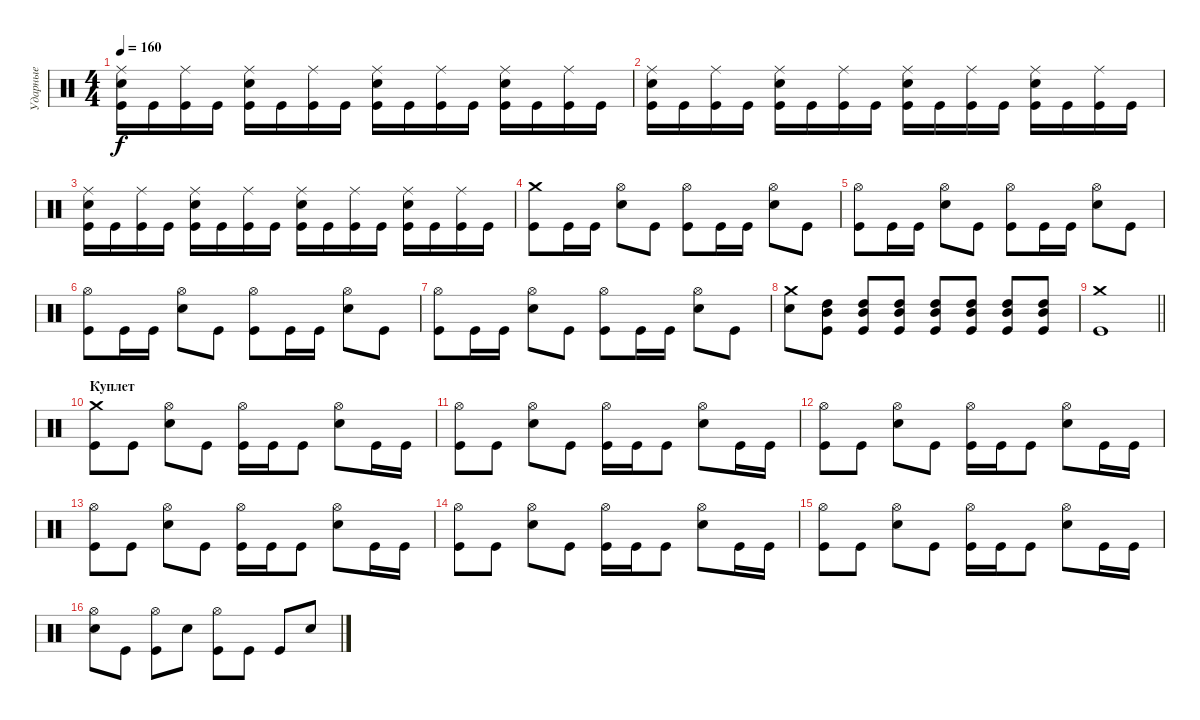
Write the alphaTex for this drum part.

\track ("Ударные" "Ударные") {instrument percussion}
\staff {score}
\articulation defaults
\ts (4 4)
\tempo 160
\clef neutral
\ks c
("Kick (hit)" "Snare (hit) 2" "Ride (middle)").16{dy f} "Kick (hit)".16 ("Kick (hit)" "Ride (middle)").16 "Kick (hit)".16 ("Kick (hit)" "Snare (hit) 2" "Ride (middle)").16 "Kick (hit)".16 ("Kick (hit)" "Ride (middle)").16 "Kick (hit)".16 ("Kick (hit)" "Snare (hit) 2" "Ride (middle)").16 "Kick (hit)".16 ("Kick (hit)" "Ride (middle)").16 "Kick (hit)".16 ("Kick (hit)" "Snare (hit) 2" "Ride (middle)").16 "Kick (hit)".16 ("Kick (hit)" "Ride (middle)").16 "Kick (hit)".16 |
("Kick (hit)" "Snare (hit) 2" "Ride (middle)").16 "Kick (hit)".16 ("Kick (hit)" "Ride (middle)").16 "Kick (hit)".16 ("Kick (hit)" "Snare (hit) 2" "Ride (middle)").16 "Kick (hit)".16 ("Kick (hit)" "Ride (middle)").16 "Kick (hit)".16 ("Kick (hit)" "Snare (hit) 2" "Ride (middle)").16 "Kick (hit)".16 ("Kick (hit)" "Ride (middle)").16 "Kick (hit)".16 ("Kick (hit)" "Snare (hit) 2" "Ride (middle)").16 "Kick (hit)".16 ("Kick (hit)" "Ride (middle)").16 "Kick (hit)".16 |
("Kick (hit)" "Snare (hit) 2" "Ride (middle)").16 "Kick (hit)".16 ("Kick (hit)" "Ride (middle)").16 "Kick (hit)".16 ("Kick (hit)" "Snare (hit) 2" "Ride (middle)").16 "Kick (hit)".16 ("Kick (hit)" "Ride (middle)").16 "Kick (hit)".16 ("Kick (hit)" "Snare (hit) 2" "Ride (middle)").16 "Kick (hit)".16 ("Kick (hit)" "Ride (middle)").16 "Kick (hit)".16 ("Kick (hit)" "Snare (hit) 2" "Ride (middle)").16 "Kick (hit)".16 ("Kick (hit)" "Ride (middle)").16 "Kick (hit)".16 |
("Kick (hit)" "Crash medium (hit)").8 "Kick (hit)".16 "Kick (hit)".16 ("Snare (hit) 2" "Hi-Hat (open)").8 "Kick (hit)".8 ("Kick (hit)" "Hi-Hat (open)").8 "Kick (hit)".16 "Kick (hit)".16 ("Snare (hit) 2" "Hi-Hat (open)").8 "Kick (hit)".8 |
("Kick (hit)" "Hi-Hat (open)").8 "Kick (hit)".16 "Kick (hit)".16 ("Snare (hit) 2" "Hi-Hat (open)").8 "Kick (hit)".8 ("Kick (hit)" "Hi-Hat (open)").8 "Kick (hit)".16 "Kick (hit)".16 ("Snare (hit) 2" "Hi-Hat (open)").8 "Kick (hit)".8 |
("Kick (hit)" "Hi-Hat (open)").8 "Kick (hit)".16 "Kick (hit)".16 ("Snare (hit) 2" "Hi-Hat (open)").8 "Kick (hit)".8 ("Kick (hit)" "Hi-Hat (open)").8 "Kick (hit)".16 "Kick (hit)".16 ("Snare (hit) 2" "Hi-Hat (open)").8 "Kick (hit)".8 |
("Kick (hit)" "Hi-Hat (open)").8 "Kick (hit)".16 "Kick (hit)".16 ("Snare (hit) 2" "Hi-Hat (open)").8 "Kick (hit)".8 ("Kick (hit)" "Hi-Hat (open)").8 "Kick (hit)".16 "Kick (hit)".16 ("Snare (hit) 2" "Hi-Hat (open)").8 "Kick (hit)".8 |
("Snare (hit) 2" "Crash medium (hit)").8 ("Kick (hit)" "Mid Tom (hit)" "High Tom (hit)").8{bd 60} ("Kick (hit)" "Mid Tom (hit)" "High Tom (hit)").8{bd 60} ("Kick (hit)" "Mid Tom (hit)" "High Tom (hit)").8{bd 60} ("Kick (hit)" "Mid Tom (hit)" "High Tom (hit)").8{bd 60} ("Kick (hit)" "Mid Tom (hit)" "High Tom (hit)").8{bd 60} ("Kick (hit)" "Mid Tom (hit)" "High Tom (hit)").8{bd 60} ("Kick (hit)" "Mid Tom (hit)" "High Tom (hit)").8{bd 60} |
\barLineRight lightlight
("Kick (hit)" "Crash medium (hit)").1 |
\section ("" "Куплет")
("Kick (hit)" "Crash medium (hit)").8 "Kick (hit)".8 ("Snare (hit) 2" "Hi-Hat (open)").8 "Kick (hit)".8 ("Kick (hit)" "Hi-Hat (open)").16 "Kick (hit)".16 "Kick (hit)".8 ("Snare (hit) 2" "Hi-Hat (open)").8 "Kick (hit)".16 "Kick (hit)".16 |
("Kick (hit)" "Hi-Hat (open)").8 "Kick (hit)".8 ("Snare (hit) 2" "Hi-Hat (open)").8 "Kick (hit)".8 ("Kick (hit)" "Hi-Hat (open)").16 "Kick (hit)".16 "Kick (hit)".8 ("Snare (hit) 2" "Hi-Hat (open)").8 "Kick (hit)".16 "Kick (hit)".16 |
("Kick (hit)" "Hi-Hat (open)").8 "Kick (hit)".8 ("Snare (hit) 2" "Hi-Hat (open)").8 "Kick (hit)".8 ("Kick (hit)" "Hi-Hat (open)").16 "Kick (hit)".16 "Kick (hit)".8 ("Snare (hit) 2" "Hi-Hat (open)").8 "Kick (hit)".16 "Kick (hit)".16 |
("Kick (hit)" "Hi-Hat (open)").8 "Kick (hit)".8 ("Snare (hit) 2" "Hi-Hat (open)").8 "Kick (hit)".8 ("Kick (hit)" "Hi-Hat (open)").16 "Kick (hit)".16 "Kick (hit)".8 ("Snare (hit) 2" "Hi-Hat (open)").8 "Kick (hit)".16 "Kick (hit)".16 |
("Kick (hit)" "Hi-Hat (open)").8 "Kick (hit)".8 ("Snare (hit) 2" "Hi-Hat (open)").8 "Kick (hit)".8 ("Kick (hit)" "Hi-Hat (open)").16 "Kick (hit)".16 "Kick (hit)".8 ("Snare (hit) 2" "Hi-Hat (open)").8 "Kick (hit)".16 "Kick (hit)".16 |
("Kick (hit)" "Hi-Hat (open)").8 "Kick (hit)".8 ("Snare (hit) 2" "Hi-Hat (open)").8 "Kick (hit)".8 ("Kick (hit)" "Hi-Hat (open)").16 "Kick (hit)".16 "Kick (hit)".8 ("Snare (hit) 2" "Hi-Hat (open)").8 "Kick (hit)".16 "Kick (hit)".16 |
("Snare (hit) 2" "Hi-Hat (open)").8 "Kick (hit)".8 ("Kick (hit)" "Hi-Hat (open)").8 "Snare (hit) 2".8 ("Kick (hit)" "Hi-Hat (open)").8 "Kick (hit)".8 "Kick (hit)".8 "Snare (hit) 2".8
